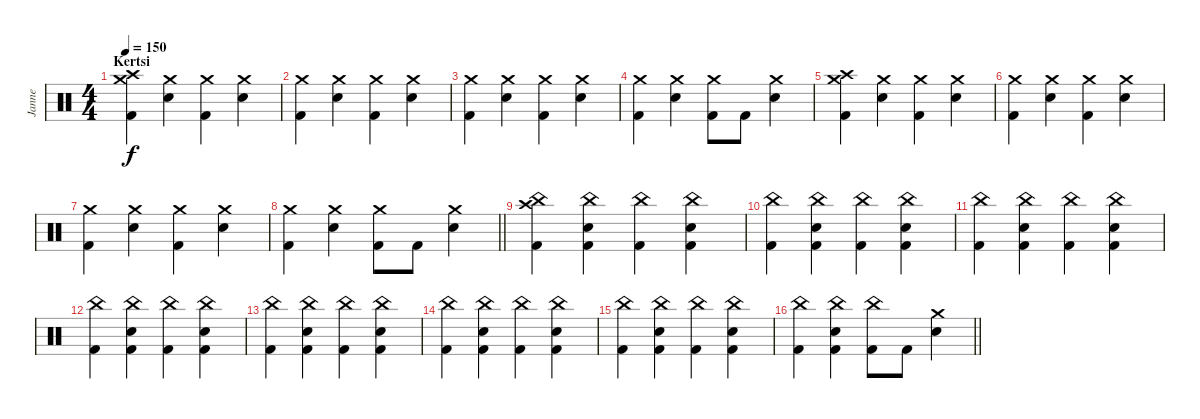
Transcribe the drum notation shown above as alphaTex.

\track ("Janne" "Janne") {instrument percussion}
\staff {score}
\articulation defaults
\ts (4 4)
\section ("" "Kertsi")
\tempo 150
\clef neutral
\ks c
("Crash high (hit)" "Crash medium (hit)" "Kick (hit) 2").4{dy f} ("Crash medium (hit)" "Electric Snare (hit)").4 ("Crash medium (hit)" "Kick (hit) 2").4 ("Crash medium (hit)" "Electric Snare (hit)").4 |
("Crash medium (hit)" "Kick (hit) 2").4 ("Crash medium (hit)" "Electric Snare (hit)").4 ("Crash medium (hit)" "Kick (hit) 2").4 ("Crash medium (hit)" "Electric Snare (hit)").4 |
("Crash medium (hit)" "Kick (hit) 2").4 ("Crash medium (hit)" "Electric Snare (hit)").4 ("Crash medium (hit)" "Kick (hit) 2").4 ("Crash medium (hit)" "Electric Snare (hit)").4 |
("Crash medium (hit)" "Kick (hit) 2").4 ("Crash medium (hit)" "Electric Snare (hit)").4 ("Crash medium (hit)" "Kick (hit) 2").8 "Kick (hit) 2".8 ("Crash medium (hit)" "Electric Snare (hit)").4 |
("Crash high (hit)" "Crash medium (hit)" "Kick (hit) 2").4 ("Crash medium (hit)" "Electric Snare (hit)").4 ("Crash medium (hit)" "Kick (hit) 2").4 ("Crash medium (hit)" "Electric Snare (hit)").4 |
("Crash medium (hit)" "Kick (hit) 2").4 ("Crash medium (hit)" "Electric Snare (hit)").4 ("Crash medium (hit)" "Kick (hit) 2").4 ("Crash medium (hit)" "Electric Snare (hit)").4 |
("Crash medium (hit)" "Kick (hit) 2").4 ("Crash medium (hit)" "Electric Snare (hit)").4 ("Crash medium (hit)" "Kick (hit) 2").4 ("Crash medium (hit)" "Electric Snare (hit)").4 |
\barLineRight lightlight
("Crash medium (hit)" "Kick (hit) 2").4 ("Crash medium (hit)" "Electric Snare (hit)").4 ("Crash medium (hit)" "Kick (hit) 2").8 "Kick (hit) 2".8 ("Crash medium (hit)" "Electric Snare (hit)").4 |
\section ("" "")
("Crash high (hit)" "China (hit)" "Kick (hit) 2").4 ("China (hit)" "Electric Snare (hit)" "Kick (hit) 2").4 ("China (hit)" "Kick (hit) 2").4 ("China (hit)" "Electric Snare (hit)" "Kick (hit) 2").4 |
("China (hit)" "Kick (hit) 2").4 ("China (hit)" "Electric Snare (hit)" "Kick (hit) 2").4 ("China (hit)" "Kick (hit) 2").4 ("China (hit)" "Electric Snare (hit)" "Kick (hit) 2").4 |
("China (hit)" "Kick (hit) 2").4 ("China (hit)" "Electric Snare (hit)" "Kick (hit) 2").4 ("China (hit)" "Kick (hit) 2").4 ("China (hit)" "Electric Snare (hit)" "Kick (hit) 2").4 |
("China (hit)" "Kick (hit) 2").4 ("China (hit)" "Electric Snare (hit)" "Kick (hit) 2").4 ("China (hit)" "Kick (hit) 2").4 ("China (hit)" "Electric Snare (hit)" "Kick (hit) 2").4 |
("China (hit)" "Kick (hit) 2").4 ("China (hit)" "Electric Snare (hit)" "Kick (hit) 2").4 ("China (hit)" "Kick (hit) 2").4 ("China (hit)" "Electric Snare (hit)" "Kick (hit) 2").4 |
("China (hit)" "Kick (hit) 2").4 ("China (hit)" "Electric Snare (hit)" "Kick (hit) 2").4 ("China (hit)" "Kick (hit) 2").4 ("China (hit)" "Electric Snare (hit)" "Kick (hit) 2").4 |
("China (hit)" "Kick (hit) 2").4 ("China (hit)" "Electric Snare (hit)" "Kick (hit) 2").4 ("China (hit)" "Kick (hit) 2").4 ("China (hit)" "Electric Snare (hit)" "Kick (hit) 2").4 |
\barLineRight lightlight
("China (hit)" "Kick (hit) 2").4 ("China (hit)" "Electric Snare (hit)" "Kick (hit) 2").4 ("China (hit)" "Kick (hit) 2").8 "Kick (hit) 2".8 ("Crash medium (hit)" "Electric Snare (hit)").4
